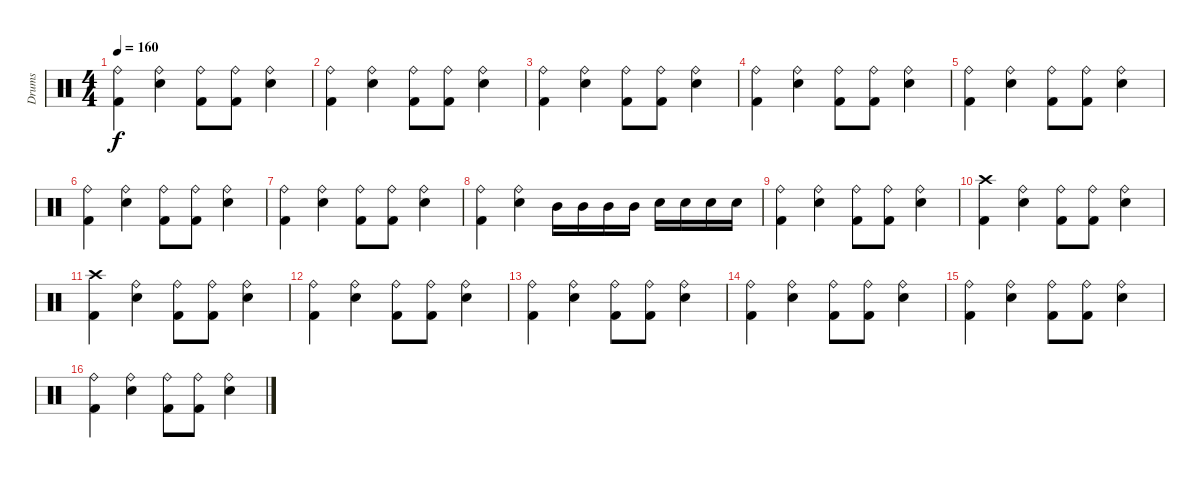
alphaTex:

\track ("Drums" "Drums") {instrument percussion}
\staff {score}
\articulation defaults
\ts (4 4)
\tempo 160
\clef neutral
\ks c
("Ride (bell)" "Kick (hit) 2").4{dy f} ("Electric Snare (hit)" "Ride (bell)").4 ("Kick (hit) 2" "Ride (bell)").8 ("Kick (hit) 2" "Ride (bell)").8 ("Electric Snare (hit)" "Ride (bell)").4 |
("Kick (hit) 2" "Ride (bell)").4 ("Electric Snare (hit)" "Ride (bell)").4 ("Kick (hit) 2" "Ride (bell)").8 ("Kick (hit) 2" "Ride (bell)").8 ("Electric Snare (hit)" "Ride (bell)").4 |
("Ride (bell)" "Kick (hit) 2").4 ("Electric Snare (hit)" "Ride (bell)").4 ("Kick (hit) 2" "Ride (bell)").8 ("Kick (hit) 2" "Ride (bell)").8 ("Electric Snare (hit)" "Ride (bell)").4 |
("Kick (hit) 2" "Ride (bell)").4 ("Electric Snare (hit)" "Ride (bell)").4 ("Kick (hit) 2" "Ride (bell)").8 ("Kick (hit) 2" "Ride (bell)").8 ("Electric Snare (hit)" "Ride (bell)").4 |
("Ride (bell)" "Kick (hit) 2").4 ("Electric Snare (hit)" "Ride (bell)").4 ("Kick (hit) 2" "Ride (bell)").8 ("Kick (hit) 2" "Ride (bell)").8 ("Electric Snare (hit)" "Ride (bell)").4 |
("Kick (hit) 2" "Ride (bell)").4 ("Electric Snare (hit)" "Ride (bell)").4 ("Kick (hit) 2" "Ride (bell)").8 ("Kick (hit) 2" "Ride (bell)").8 ("Electric Snare (hit)" "Ride (bell)").4 |
("Ride (bell)" "Kick (hit) 2").4 ("Electric Snare (hit)" "Ride (bell)").4 ("Kick (hit) 2" "Ride (bell)").8 ("Kick (hit) 2" "Ride (bell)").8 ("Electric Snare (hit)" "Ride (bell)").4 |
("Kick (hit) 2" "Ride (bell)").4 ("Electric Snare (hit)" "Ride (bell)").4 "Mid Tom (hit)".16 "Mid Tom (hit)".16 "Mid Tom (hit)".16 "Mid Tom (hit)".16 "Electric Snare (hit)".16 "Electric Snare (hit)".16 "Electric Snare (hit)".16 "Electric Snare (hit)".16 |
("Ride (bell)" "Kick (hit) 2").4 ("Electric Snare (hit)" "Ride (bell)").4 ("Kick (hit) 2" "Ride (bell)").8 ("Kick (hit) 2" "Ride (bell)").8 ("Electric Snare (hit)" "Ride (bell)").4 |
("Crash high (hit)" "Kick (hit) 2").4 ("Electric Snare (hit)" "Ride (bell)").4 ("Kick (hit) 2" "Ride (bell)").8 ("Kick (hit) 2" "Ride (bell)").8 ("Electric Snare (hit)" "Ride (bell)").4 |
("Kick (hit) 2" "Crash high (hit)").4 ("Electric Snare (hit)" "Ride (bell)").4 ("Kick (hit) 2" "Ride (bell)").8 ("Kick (hit) 2" "Ride (bell)").8 ("Electric Snare (hit)" "Ride (bell)").4 |
("Ride (bell)" "Kick (hit) 2").4 ("Electric Snare (hit)" "Ride (bell)").4 ("Kick (hit) 2" "Ride (bell)").8 ("Kick (hit) 2" "Ride (bell)").8 ("Electric Snare (hit)" "Ride (bell)").4 |
("Kick (hit) 2" "Ride (bell)").4 ("Electric Snare (hit)" "Ride (bell)").4 ("Kick (hit) 2" "Ride (bell)").8 ("Kick (hit) 2" "Ride (bell)").8 ("Electric Snare (hit)" "Ride (bell)").4 |
("Ride (bell)" "Kick (hit) 2").4 ("Electric Snare (hit)" "Ride (bell)").4 ("Kick (hit) 2" "Ride (bell)").8 ("Kick (hit) 2" "Ride (bell)").8 ("Electric Snare (hit)" "Ride (bell)").4 |
("Kick (hit) 2" "Ride (bell)").4 ("Electric Snare (hit)" "Ride (bell)").4 ("Kick (hit) 2" "Ride (bell)").8 ("Kick (hit) 2" "Ride (bell)").8 ("Electric Snare (hit)" "Ride (bell)").4 |
("Ride (bell)" "Kick (hit) 2").4 ("Electric Snare (hit)" "Ride (bell)").4 ("Kick (hit) 2" "Ride (bell)").8 ("Kick (hit) 2" "Ride (bell)").8 ("Electric Snare (hit)" "Ride (bell)").4
